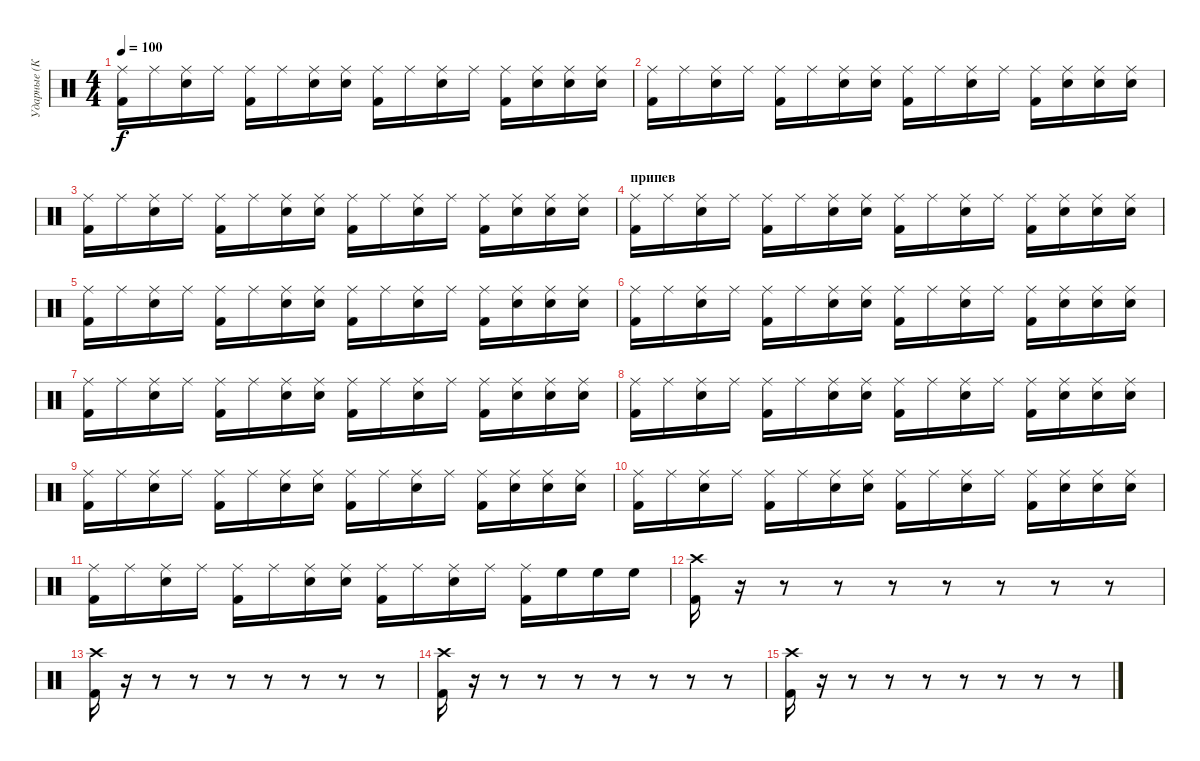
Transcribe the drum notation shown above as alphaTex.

\track ("Ударные (Котов)" "Ударные (К") {instrument percussion}
\staff {score}
\articulation defaults
\ts (4 4)
\tempo 100
\clef neutral
\ks c
("Ride (middle)" "Kick (hit) 2").16{dy f} "Ride (middle)".16 ("Ride (middle)" "Snare (hit) 2").16 "Ride (middle)".16 ("Ride (middle)" "Kick (hit) 2").16 "Ride (middle)".16 ("Ride (middle)" "Snare (hit) 2").16 ("Ride (middle)" "Snare (hit) 2").16 ("Ride (middle)" "Kick (hit) 2").16 "Ride (middle)".16 ("Ride (middle)" "Snare (hit) 2").16 "Ride (middle)".16 ("Ride (middle)" "Kick (hit) 2").16 ("Ride (middle)" "Snare (hit) 2").16 ("Ride (middle)" "Snare (hit) 2").16 ("Ride (middle)" "Snare (hit) 2").16 |
("Ride (middle)" "Kick (hit) 2").16 "Ride (middle)".16 ("Ride (middle)" "Snare (hit) 2").16 "Ride (middle)".16 ("Ride (middle)" "Kick (hit) 2").16 "Ride (middle)".16 ("Ride (middle)" "Snare (hit) 2").16 ("Ride (middle)" "Snare (hit) 2").16 ("Ride (middle)" "Kick (hit) 2").16 "Ride (middle)".16 ("Ride (middle)" "Snare (hit) 2").16 "Ride (middle)".16 ("Ride (middle)" "Kick (hit) 2").16 ("Ride (middle)" "Snare (hit) 2").16 ("Ride (middle)" "Snare (hit) 2").16 ("Ride (middle)" "Snare (hit) 2").16 |
("Ride (middle)" "Kick (hit) 2").16 "Ride (middle)".16 ("Ride (middle)" "Snare (hit) 2").16 "Ride (middle)".16 ("Ride (middle)" "Kick (hit) 2").16 "Ride (middle)".16 ("Ride (middle)" "Snare (hit) 2").16 ("Ride (middle)" "Snare (hit) 2").16 ("Ride (middle)" "Kick (hit) 2").16 "Ride (middle)".16 ("Ride (middle)" "Snare (hit) 2").16 "Ride (middle)".16 ("Ride (middle)" "Kick (hit) 2").16 ("Ride (middle)" "Snare (hit) 2").16 ("Ride (middle)" "Snare (hit) 2").16 ("Ride (middle)" "Snare (hit) 2").16 |
\section ("" "припев")
("Ride (middle)" "Kick (hit) 2").16 "Ride (middle)".16 ("Ride (middle)" "Snare (hit) 2").16 "Ride (middle)".16 ("Ride (middle)" "Kick (hit) 2").16 "Ride (middle)".16 ("Ride (middle)" "Snare (hit) 2").16 ("Ride (middle)" "Snare (hit) 2").16 ("Ride (middle)" "Kick (hit) 2").16 "Ride (middle)".16 ("Ride (middle)" "Snare (hit) 2").16 "Ride (middle)".16 ("Ride (middle)" "Kick (hit) 2").16 ("Ride (middle)" "Snare (hit) 2").16 ("Ride (middle)" "Snare (hit) 2").16 ("Ride (middle)" "Snare (hit) 2").16 |
("Ride (middle)" "Kick (hit) 2").16 "Ride (middle)".16 ("Ride (middle)" "Snare (hit) 2").16 "Ride (middle)".16 ("Ride (middle)" "Kick (hit) 2").16 "Ride (middle)".16 ("Ride (middle)" "Snare (hit) 2").16 ("Ride (middle)" "Snare (hit) 2").16 ("Ride (middle)" "Kick (hit) 2").16 "Ride (middle)".16 ("Ride (middle)" "Snare (hit) 2").16 "Ride (middle)".16 ("Ride (middle)" "Kick (hit) 2").16 ("Ride (middle)" "Snare (hit) 2").16 ("Ride (middle)" "Snare (hit) 2").16 ("Ride (middle)" "Snare (hit) 2").16 |
("Ride (middle)" "Kick (hit) 2").16 "Ride (middle)".16 ("Ride (middle)" "Snare (hit) 2").16 "Ride (middle)".16 ("Ride (middle)" "Kick (hit) 2").16 "Ride (middle)".16 ("Ride (middle)" "Snare (hit) 2").16 ("Ride (middle)" "Snare (hit) 2").16 ("Ride (middle)" "Kick (hit) 2").16 "Ride (middle)".16 ("Ride (middle)" "Snare (hit) 2").16 "Ride (middle)".16 ("Ride (middle)" "Kick (hit) 2").16 ("Ride (middle)" "Snare (hit) 2").16 ("Ride (middle)" "Snare (hit) 2").16 ("Ride (middle)" "Snare (hit) 2").16 |
("Ride (middle)" "Kick (hit) 2").16 "Ride (middle)".16 ("Ride (middle)" "Snare (hit) 2").16 "Ride (middle)".16 ("Ride (middle)" "Kick (hit) 2").16 "Ride (middle)".16 ("Ride (middle)" "Snare (hit) 2").16 ("Ride (middle)" "Snare (hit) 2").16 ("Ride (middle)" "Kick (hit) 2").16 "Ride (middle)".16 ("Ride (middle)" "Snare (hit) 2").16 "Ride (middle)".16 ("Ride (middle)" "Kick (hit) 2").16 ("Ride (middle)" "Snare (hit) 2").16 ("Ride (middle)" "Snare (hit) 2").16 ("Ride (middle)" "Snare (hit) 2").16 |
("Ride (middle)" "Kick (hit) 2").16 "Ride (middle)".16 ("Ride (middle)" "Snare (hit) 2").16 "Ride (middle)".16 ("Ride (middle)" "Kick (hit) 2").16 "Ride (middle)".16 ("Ride (middle)" "Snare (hit) 2").16 ("Ride (middle)" "Snare (hit) 2").16 ("Ride (middle)" "Kick (hit) 2").16 "Ride (middle)".16 ("Ride (middle)" "Snare (hit) 2").16 "Ride (middle)".16 ("Ride (middle)" "Kick (hit) 2").16 ("Ride (middle)" "Snare (hit) 2").16 ("Ride (middle)" "Snare (hit) 2").16 ("Ride (middle)" "Snare (hit) 2").16 |
("Ride (middle)" "Kick (hit) 2").16 "Ride (middle)".16 ("Ride (middle)" "Snare (hit) 2").16 "Ride (middle)".16 ("Ride (middle)" "Kick (hit) 2").16 "Ride (middle)".16 ("Ride (middle)" "Snare (hit) 2").16 ("Ride (middle)" "Snare (hit) 2").16 ("Ride (middle)" "Kick (hit) 2").16 "Ride (middle)".16 ("Ride (middle)" "Snare (hit) 2").16 "Ride (middle)".16 ("Ride (middle)" "Kick (hit) 2").16 ("Ride (middle)" "Snare (hit) 2").16 ("Ride (middle)" "Snare (hit) 2").16 ("Ride (middle)" "Snare (hit) 2").16 |
("Ride (middle)" "Kick (hit) 2").16 "Ride (middle)".16 ("Ride (middle)" "Snare (hit) 2").16 "Ride (middle)".16 ("Ride (middle)" "Kick (hit) 2").16 "Ride (middle)".16 ("Ride (middle)" "Snare (hit) 2").16 ("Ride (middle)" "Snare (hit) 2").16 ("Ride (middle)" "Kick (hit) 2").16 "Ride (middle)".16 ("Ride (middle)" "Snare (hit) 2").16 "Ride (middle)".16 ("Ride (middle)" "Kick (hit) 2").16 ("Ride (middle)" "Snare (hit) 2").16 ("Ride (middle)" "Snare (hit) 2").16 ("Ride (middle)" "Snare (hit) 2").16 |
("Ride (middle)" "Kick (hit) 2").16 "Ride (middle)".16 ("Ride (middle)" "Snare (hit) 2").16 "Ride (middle)".16 ("Ride (middle)" "Kick (hit) 2").16 "Ride (middle)".16 ("Ride (middle)" "Snare (hit) 2").16 ("Ride (middle)" "Snare (hit) 2").16 ("Ride (middle)" "Kick (hit) 2").16 "Ride (middle)".16 ("Ride (middle)" "Snare (hit) 2").16 "Ride (middle)".16 ("Ride (middle)" "Kick (hit) 2").16 "High Floor Tom (hit)".16 "High Floor Tom (hit)".16 "High Floor Tom (hit)".16 |
("Kick (hit) 2" "Crash high (hit)").16 r.16 r.8 r.8 r.8 r.8 r.8 r.8 r.8 |
("Kick (hit) 2" "Crash high (hit)").16 r.16 r.8 r.8 r.8 r.8 r.8 r.8 r.8 |
("Kick (hit) 2" "Crash high (hit)").16 r.16 r.8 r.8 r.8 r.8 r.8 r.8 r.8 |
("Kick (hit) 2" "Crash high (hit)").16 r.16 r.8 r.8 r.8 r.8 r.8 r.8 r.8
